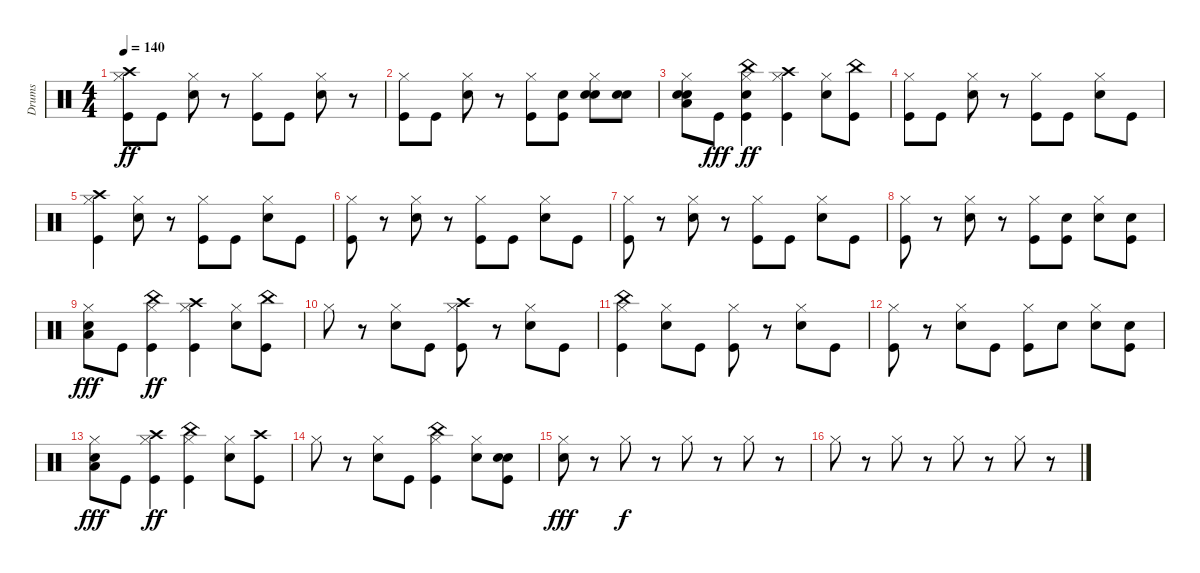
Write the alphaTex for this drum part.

\track ("Drums" "Drums") {instrument percussion}
\staff {score}
\articulation defaults
\ts (4 4)
\tempo 140
\clef neutral
\ks c
("Crash high (hit)" "Hi-Hat (closed)" "Kick (hit)").8{dy ff} "Kick (hit)".8 ("Hi-Hat (closed)" "Snare (hit) 2").8 r.8 ("Hi-Hat (closed)" "Kick (hit)").8 "Kick (hit)".8 ("Hi-Hat (closed)" "Snare (hit) 2").8 r.8 |
("Hi-Hat (closed)" "Kick (hit)").8 "Kick (hit)".8 ("Hi-Hat (closed)" "Snare (hit) 2").8 r.8 ("Hi-Hat (closed)" "Kick (hit)").8 ("Snare (hit) 2" "Kick (hit)").8 ("Snare (hit) 2" "Hi-Hat (closed)" "Snare (hit) 2").8 ("Snare (hit) 2" "Snare (hit) 2").8 |
("Snare (hit) 2" "Snare (hit) 2" "Low Floor Tom (hit)" "Hi-Hat (closed)").8 "Kick (hit)".8{dy fff} ("Kick (hit)" "China (hit)" "Hi-Hat (closed)" "Snare (hit) 2").4{dy ff} ("Kick (hit)" "Crash high (hit)" "Hi-Hat (closed)").4 ("Hi-Hat (closed)" "Snare (hit) 2").8 ("China (hit)" "Kick (hit)").8 |
("Hi-Hat (closed)" "Kick (hit)").8 "Kick (hit)".8 ("Hi-Hat (closed)" "Snare (hit) 2").8 r.8 ("Hi-Hat (closed)" "Kick (hit)").8 "Kick (hit)".8 ("Hi-Hat (closed)" "Snare (hit) 2").8 "Kick (hit)".8 |
("Crash high (hit)" "Hi-Hat (closed)" "Kick (hit)").4 ("Hi-Hat (closed)" "Snare (hit) 2").8 r.8 ("Hi-Hat (closed)" "Kick (hit)").8 "Kick (hit)".8 ("Hi-Hat (closed)" "Snare (hit) 2").8 "Kick (hit)".8 |
("Hi-Hat (closed)" "Kick (hit)").8 r.8 ("Hi-Hat (closed)" "Snare (hit) 2").8 r.8 ("Hi-Hat (closed)" "Kick (hit)").8 "Kick (hit)".8 ("Hi-Hat (closed)" "Snare (hit) 2").8 "Kick (hit)".8 |
("Hi-Hat (closed)" "Kick (hit)").8 r.8 ("Hi-Hat (closed)" "Snare (hit) 2").8 r.8 ("Hi-Hat (closed)" "Kick (hit)").8 "Kick (hit)".8 ("Hi-Hat (closed)" "Snare (hit) 2").8 "Kick (hit)".8 |
("Hi-Hat (closed)" "Kick (hit)").8 r.8 ("Hi-Hat (closed)" "Snare (hit) 2").8 r.8 ("Hi-Hat (closed)" "Kick (hit)").8 ("Snare (hit) 2" "Kick (hit)").8 ("Snare (hit) 2" "Hi-Hat (closed)").8 ("Snare (hit) 2" "Kick (hit)").8 |
("Snare (hit) 2" "Hi-Hat (closed)" "Low Floor Tom (hit)").8{dy fff} "Kick (hit)".8 ("China (hit)" "Hi-Hat (closed)" "Kick (hit)").4{dy ff} ("Kick (hit)" "Crash high (hit)" "Hi-Hat (closed)").4 ("Hi-Hat (closed)" "Snare (hit) 2").8 ("Kick (hit)" "China (hit)").8 |
"Hi-Hat (closed)".8 r.8 ("Hi-Hat (closed)" "Snare (hit) 2").8 "Kick (hit)".8 ("Kick (hit)" "Crash high (hit)" "Hi-Hat (closed)").8 r.8 ("Hi-Hat (closed)" "Snare (hit) 2").8 "Kick (hit)".8 |
("Kick (hit)" "China (hit)" "Hi-Hat (closed)").4 ("Hi-Hat (closed)" "Snare (hit) 2").8 "Kick (hit)".8 ("Hi-Hat (closed)" "Kick (hit)").8 r.8 ("Hi-Hat (closed)" "Snare (hit) 2").8 "Kick (hit)".8 |
("Hi-Hat (closed)" "Kick (hit)").8 r.8 ("Hi-Hat (closed)" "Snare (hit) 2").8 "Kick (hit)".8 ("Kick (hit)" "Hi-Hat (closed)").8 "Snare (hit) 2".8 ("Hi-Hat (closed)" "Snare (hit) 2").8 ("Snare (hit) 2" "Kick (hit)").8 |
("Snare (hit) 2" "Hi-Hat (closed)" "Low Floor Tom (hit)").8{dy fff} "Kick (hit)".8 ("Crash high (hit)" "Hi-Hat (closed)" "Kick (hit)").4{dy ff} ("Kick (hit)" "China (hit)" "Hi-Hat (closed)").4 ("Hi-Hat (closed)" "Snare (hit) 2").8 ("Kick (hit)" "Crash high (hit)").8 |
"Hi-Hat (closed)".8 r.8 ("Hi-Hat (closed)" "Snare (hit) 2").8 "Kick (hit)".8 ("Kick (hit)" "China (hit)" "Hi-Hat (closed)").4 ("Hi-Hat (closed)" "Snare (hit) 2").8 ("Snare (hit) 2" "Snare (hit) 2" "Kick (hit)").8 |
("Snare (hit) 2" "Hi-Hat (closed)").8{dy fff} r.8 "Hi-Hat (closed)".8{dy f} r.8 "Hi-Hat (closed)".8 r.8 "Hi-Hat (closed)".8 r.8 |
"Hi-Hat (closed)".8 r.8 "Hi-Hat (closed)".8 r.8 "Hi-Hat (closed)".8 r.8 "Hi-Hat (closed)".8 r.8
